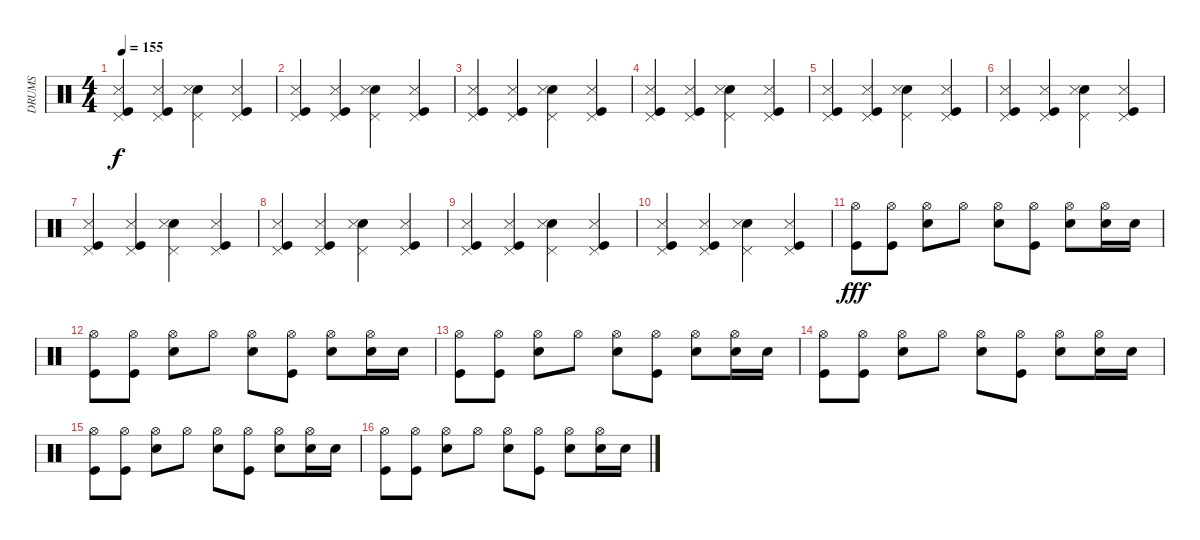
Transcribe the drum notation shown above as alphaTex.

\track ("DRUMS" "DRUMS") {instrument percussion}
\staff {score}
\articulation defaults
\ts (4 4)
\tempo 155
\clef neutral
\ks c
("Kick (hit)" "Snare (side stick) 3" "Pedal Hi-Hat (hit)").4{dy f} ("Kick (hit)" "Snare (side stick) 3" "Pedal Hi-Hat (hit)").4 ("Snare (hit) 2" "Snare (side stick) 3" "Pedal Hi-Hat (hit)").4 ("Kick (hit)" "Snare (side stick) 3" "Pedal Hi-Hat (hit)").4 |
("Kick (hit)" "Snare (side stick) 3" "Pedal Hi-Hat (hit)").4 ("Kick (hit)" "Snare (side stick) 3" "Pedal Hi-Hat (hit)").4 ("Snare (hit) 2" "Snare (side stick) 3" "Pedal Hi-Hat (hit)").4 ("Kick (hit)" "Snare (side stick) 3" "Pedal Hi-Hat (hit)").4 |
("Kick (hit)" "Snare (side stick) 3" "Pedal Hi-Hat (hit)").4 ("Kick (hit)" "Snare (side stick) 3" "Pedal Hi-Hat (hit)").4 ("Snare (hit) 2" "Snare (side stick) 3" "Pedal Hi-Hat (hit)").4 ("Kick (hit)" "Snare (side stick) 3" "Pedal Hi-Hat (hit)").4 |
("Kick (hit)" "Snare (side stick) 3" "Pedal Hi-Hat (hit)").4 ("Kick (hit)" "Snare (side stick) 3" "Pedal Hi-Hat (hit)").4 ("Snare (hit) 2" "Snare (side stick) 3" "Pedal Hi-Hat (hit)").4 ("Kick (hit)" "Snare (side stick) 3" "Pedal Hi-Hat (hit)").4 |
("Kick (hit)" "Snare (side stick) 3" "Pedal Hi-Hat (hit)").4 ("Kick (hit)" "Snare (side stick) 3" "Pedal Hi-Hat (hit)").4 ("Snare (hit) 2" "Snare (side stick) 3" "Pedal Hi-Hat (hit)").4 ("Kick (hit)" "Snare (side stick) 3" "Pedal Hi-Hat (hit)").4 |
("Kick (hit)" "Snare (side stick) 3" "Pedal Hi-Hat (hit)").4 ("Kick (hit)" "Snare (side stick) 3" "Pedal Hi-Hat (hit)").4 ("Snare (hit) 2" "Snare (side stick) 3" "Pedal Hi-Hat (hit)").4 ("Kick (hit)" "Snare (side stick) 3" "Pedal Hi-Hat (hit)").4 |
("Kick (hit)" "Snare (side stick) 3" "Pedal Hi-Hat (hit)").4 ("Kick (hit)" "Snare (side stick) 3" "Pedal Hi-Hat (hit)").4 ("Snare (hit) 2" "Snare (side stick) 3" "Pedal Hi-Hat (hit)").4 ("Kick (hit)" "Snare (side stick) 3" "Pedal Hi-Hat (hit)").4 |
("Kick (hit)" "Snare (side stick) 3" "Pedal Hi-Hat (hit)").4 ("Kick (hit)" "Snare (side stick) 3" "Pedal Hi-Hat (hit)").4 ("Snare (hit) 2" "Snare (side stick) 3" "Pedal Hi-Hat (hit)").4 ("Kick (hit)" "Snare (side stick) 3" "Pedal Hi-Hat (hit)").4 |
("Kick (hit)" "Snare (side stick) 3" "Pedal Hi-Hat (hit)").4 ("Kick (hit)" "Snare (side stick) 3" "Pedal Hi-Hat (hit)").4 ("Snare (hit) 2" "Snare (side stick) 3" "Pedal Hi-Hat (hit)").4 ("Kick (hit)" "Snare (side stick) 3" "Pedal Hi-Hat (hit)").4 |
("Kick (hit)" "Snare (side stick) 3" "Pedal Hi-Hat (hit)").4 ("Kick (hit)" "Snare (side stick) 3" "Pedal Hi-Hat (hit)").4 ("Snare (hit) 2" "Snare (side stick) 3" "Pedal Hi-Hat (hit)").4 ("Kick (hit)" "Snare (side stick) 3" "Pedal Hi-Hat (hit)").4 |
("Kick (hit)" "Hi-Hat (open)").8{dy fff balance 8} ("Kick (hit)" "Hi-Hat (open)").8 ("Snare (hit) 2" "Hi-Hat (open)").8 "Hi-Hat (open)".8 ("Snare (hit) 2" "Hi-Hat (open)").8 ("Kick (hit)" "Hi-Hat (open)").8 ("Snare (hit) 2" "Hi-Hat (open)").8 ("Snare (hit) 2" "Hi-Hat (open)").16 "Snare (hit) 2".16 |
("Kick (hit)" "Hi-Hat (open)").8 ("Kick (hit)" "Hi-Hat (open)").8 ("Snare (hit) 2" "Hi-Hat (open)").8 "Hi-Hat (open)".8 ("Snare (hit) 2" "Hi-Hat (open)").8 ("Kick (hit)" "Hi-Hat (open)").8 ("Snare (hit) 2" "Hi-Hat (open)").8 ("Snare (hit) 2" "Hi-Hat (open)").16 "Snare (hit) 2".16 |
("Kick (hit)" "Hi-Hat (open)").8 ("Kick (hit)" "Hi-Hat (open)").8 ("Snare (hit) 2" "Hi-Hat (open)").8 "Hi-Hat (open)".8 ("Snare (hit) 2" "Hi-Hat (open)").8 ("Kick (hit)" "Hi-Hat (open)").8 ("Snare (hit) 2" "Hi-Hat (open)").8 ("Snare (hit) 2" "Hi-Hat (open)").16 "Snare (hit) 2".16 |
("Kick (hit)" "Hi-Hat (open)").8 ("Kick (hit)" "Hi-Hat (open)").8 ("Snare (hit) 2" "Hi-Hat (open)").8 "Hi-Hat (open)".8 ("Snare (hit) 2" "Hi-Hat (open)").8 ("Kick (hit)" "Hi-Hat (open)").8 ("Snare (hit) 2" "Hi-Hat (open)").8 ("Snare (hit) 2" "Hi-Hat (open)").16 "Snare (hit) 2".16 |
("Kick (hit)" "Hi-Hat (open)").8 ("Kick (hit)" "Hi-Hat (open)").8 ("Snare (hit) 2" "Hi-Hat (open)").8 "Hi-Hat (open)".8 ("Snare (hit) 2" "Hi-Hat (open)").8 ("Kick (hit)" "Hi-Hat (open)").8 ("Snare (hit) 2" "Hi-Hat (open)").8 ("Snare (hit) 2" "Hi-Hat (open)").16 "Snare (hit) 2".16 |
("Kick (hit)" "Hi-Hat (open)").8 ("Kick (hit)" "Hi-Hat (open)").8 ("Snare (hit) 2" "Hi-Hat (open)").8 "Hi-Hat (open)".8 ("Snare (hit) 2" "Hi-Hat (open)").8 ("Kick (hit)" "Hi-Hat (open)").8 ("Snare (hit) 2" "Hi-Hat (open)").8 ("Snare (hit) 2" "Hi-Hat (open)").16 "Snare (hit) 2".16
